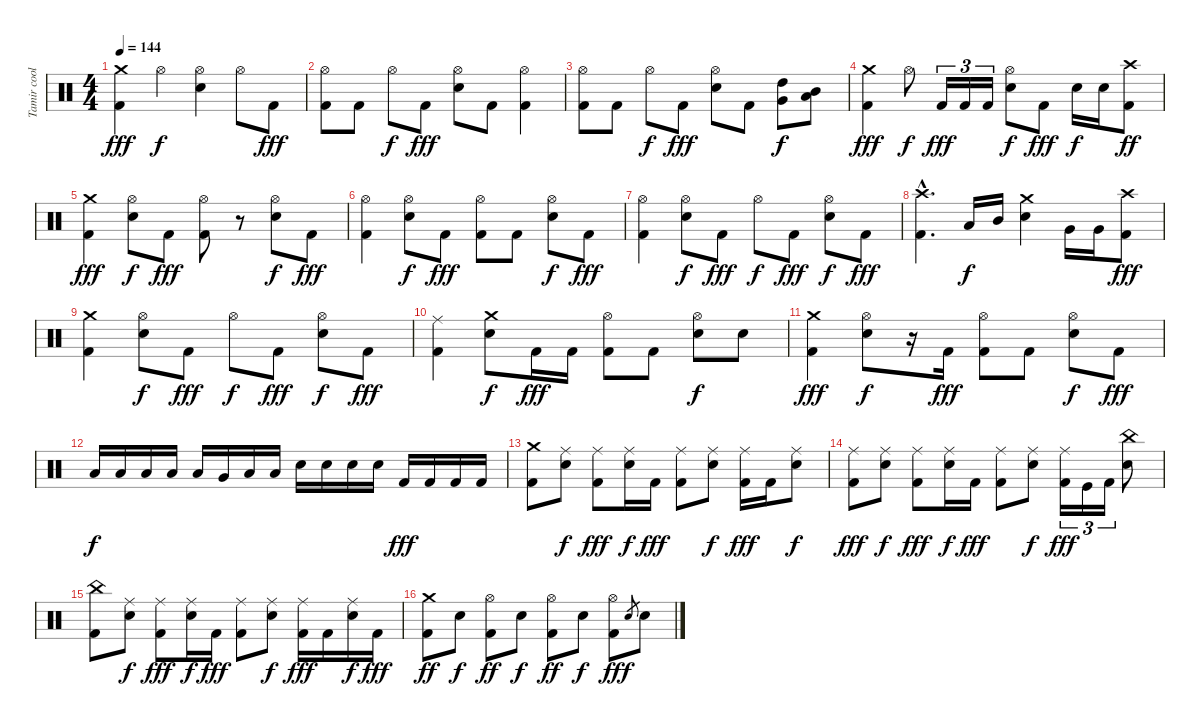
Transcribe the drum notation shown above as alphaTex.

\track ("Tamir coolberg" "Tamir cool") {instrument percussion}
\staff {score}
\articulation defaults
\ts (4 4)
\tempo 144
\clef neutral
\ks c
("Crash medium (hit)" "Kick (hit) 2").4{dy fff} "Hi-Hat (open)".4{dy f} ("Hi-Hat (open)" "Electric Snare (hit)").4 "Hi-Hat (open)".8 "Kick (hit) 2".8{dy fff} |
("Hi-Hat (open)" "Kick (hit) 2").8 "Kick (hit) 2".8 "Hi-Hat (open)".8{dy f} "Kick (hit) 2".8{dy fff} ("Hi-Hat (open)" "Electric Snare (hit)").8 "Kick (hit) 2".8 ("Hi-Hat (open)" "Kick (hit) 2").4 |
("Hi-Hat (open)" "Kick (hit) 2").8 "Kick (hit) 2".8 "Hi-Hat (open)".8{dy f} "Kick (hit) 2".8{dy fff} ("Hi-Hat (open)" "Electric Snare (hit)").8 "Kick (hit) 2".8 ("High Tom (hit)" "Very Low Tom (hit)").8{dy f} ("Mid Tom (hit)" "Low Floor Tom (hit)").8 |
("Crash medium (hit)" "Kick (hit) 2").4{dy fff} "Hi-Hat (open)".8{dy f} "Kick (hit) 2".16{tu (3 2) dy fff} "Kick (hit) 2".16{tu (3 2)} "Kick (hit) 2".16{tu (3 2)} ("Hi-Hat (open)" "Electric Snare (hit)").8{dy f} "Kick (hit) 2".8{dy fff} "Electric Snare (hit)".16{dy f} "Electric Snare (hit)".16 ("Crash high (hit)" "Kick (hit) 2").8{dy ff} |
("Crash medium (hit)" "Kick (hit) 2").4{dy fff} ("Hi-Hat (open)" "Electric Snare (hit)").8{dy f} "Kick (hit) 2".8{dy fff} ("Hi-Hat (open)" "Kick (hit) 2").8 r.8 ("Hi-Hat (open)" "Electric Snare (hit)").8{dy f} "Kick (hit) 2".8{dy fff} |
("Hi-Hat (open)" "Kick (hit) 2").4 ("Hi-Hat (open)" "Electric Snare (hit)").8{dy f} "Kick (hit) 2".8{dy fff} ("Hi-Hat (open)" "Kick (hit) 2").8 "Kick (hit) 2".8 ("Hi-Hat (open)" "Electric Snare (hit)").8{dy f} "Kick (hit) 2".8{dy fff} |
("Hi-Hat (open)" "Kick (hit) 2").4 ("Hi-Hat (open)" "Electric Snare (hit)").8{dy f} "Kick (hit) 2".8{dy fff} "Hi-Hat (open)".8{dy f} "Kick (hit) 2".8{dy fff} ("Hi-Hat (open)" "Electric Snare (hit)").8{dy f} "Kick (hit) 2".8{dy fff} |
("Crash high (hit)"{hac} "Kick (hit) 2"{hac}).4{d} "Low Tom (hit)".16{dy f} "Mid Tom (hit)".16 ("Crash medium (hit)" "Electric Snare (hit)").4 "Very Low Tom (hit)".16 "Very Low Tom (hit)".16 ("Crash high (hit)" "Kick (hit) 2").8{dy fff} |
("Crash medium (hit)" "Kick (hit) 2").4 ("Hi-Hat (open)" "Snare (hit) 2").8{dy f} "Kick (hit) 2".8{dy fff} "Hi-Hat (open)".8{dy f} "Kick (hit) 2".8{dy fff} ("Hi-Hat (open)" "Snare (hit) 2").8{dy f} "Kick (hit) 2".8{dy fff} |
("Ride (middle)" "Kick (hit) 2").4 ("Crash medium (hit)" "Snare (hit) 2").8{dy f} "Kick (hit) 2".16{dy fff} "Kick (hit) 2".16 ("Hi-Hat (open)" "Kick (hit) 2").8 "Kick (hit) 2".8 ("Hi-Hat (open)" "Snare (hit) 2").8{dy f} "Snare (hit) 2".8 |
("Crash medium (hit)" "Kick (hit) 2").4{dy fff} ("Hi-Hat (open)" "Snare (hit) 2").8{dy f} r.16 "Kick (hit) 2".16{dy fff} ("Hi-Hat (open)" "Kick (hit) 2").8 "Kick (hit) 2".8 ("Hi-Hat (open)" "Snare (hit) 2").8{dy f} "Kick (hit) 2".8{dy fff} |
"Low Tom (hit)".16{dy f} "Low Tom (hit)".16 "Low Tom (hit)".16 "Low Tom (hit)".16 "Low Tom (hit)".16 "Very Low Tom (hit)".16 "Low Floor Tom (hit)".16 "Low Floor Tom (hit)".16 "Electric Snare (hit)".16 "Electric Snare (hit)".16 "Electric Snare (hit)".16 "Electric Snare (hit)".16 "Kick (hit) 2".16{dy fff} "Kick (hit) 2".16 "Kick (hit) 2".16 "Kick (hit) 2".16 |
("Crash medium (hit)" "Kick (hit) 2").8 ("Ride (middle)" "Snare (hit) 2").8{dy f} ("Ride (middle)" "Kick (hit) 2").8{dy fff} ("Ride (middle)" "Snare (hit) 2").16{dy f} "Kick (hit) 2".16{dy fff} ("Ride (middle)" "Kick (hit) 2").8 ("Ride (middle)" "Snare (hit) 2").8{dy f} ("Ride (middle)" "Kick (hit) 2").16{dy fff} "Kick (hit) 2".16 ("Ride (middle)" "Snare (hit) 2").8{dy f} |
("Ride (middle)" "Kick (hit) 2").8{dy fff} ("Ride (middle)" "Snare (hit) 2").8{dy f} ("Ride (middle)" "Kick (hit) 2").8{dy fff} ("Ride (middle)" "Snare (hit) 2").16{dy f} "Kick (hit) 2".16{dy fff} ("Ride (middle)" "Kick (hit) 2").8 ("Ride (middle)" "Snare (hit) 2").8{dy f} ("Ride (middle)" "Kick (hit) 2").16{tu (3 2) dy fff} "Kick (hit)".16{tu (3 2)} "Kick (hit) 2".16{tu (3 2)} ("China (hit)" "Snare (hit) 2").8 |
("China (hit)" "Kick (hit) 2").8 ("Ride (middle)" "Snare (hit) 2").8{dy f} ("Ride (middle)" "Kick (hit) 2").8{dy fff} ("Ride (middle)" "Snare (hit) 2").16{dy f} "Kick (hit) 2".16{dy fff} ("Ride (middle)" "Kick (hit) 2").8 ("Ride (middle)" "Snare (hit) 2").8{dy f} ("Ride (middle)" "Kick (hit) 2").16{dy fff} "Kick (hit) 2".16 ("Ride (middle)" "Snare (hit) 2").16{dy f} "Kick (hit) 2".16{dy fff} |
("Crash medium (hit)" "Kick (hit) 2").8{dy ff} "Snare (hit) 2".8{dy f} ("Hi-Hat (open)" "Kick (hit) 2").8{dy ff} "Snare (hit) 2".8{dy f} ("Hi-Hat (open)" "Kick (hit) 2").8{dy ff} "Snare (hit) 2".8{dy f} ("Hi-Hat (open)" "Kick (hit) 2").8{dy ff} "Snare (hit) 2".8{gr dy f} "Snare (hit) 2".8
